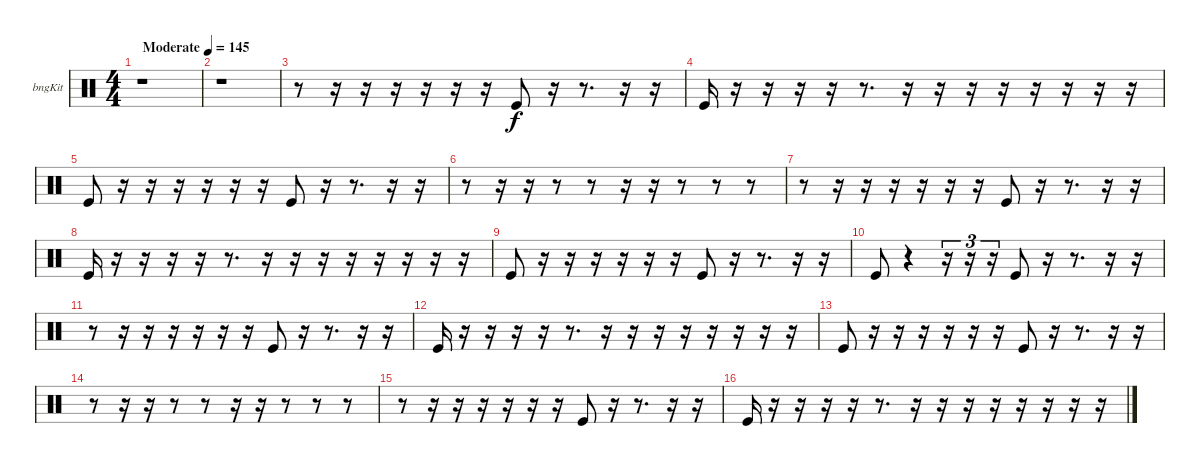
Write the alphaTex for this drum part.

\bracketExtendMode groupsimilarinstruments
\firstSystemTrackNameOrientation horizontal
\otherSystemsTrackNameOrientation horizontal
\track ("Bongos" "bngKit") {instrument percussion}
\staff {score}
\articulation defaults
\ts (4 4)
\beaming (8 2 2 2 2)
\tempo (145 "Moderate")
\clef neutral
\ks c
r.1{dy f} |
r.1 |
r.8 r.16 r.16 r.16 r.16 r.16 r.16 "Kick (hit)".8 r.16 r.8{d} r.16 r.16 |
"Kick (hit)".16 r.16 r.16 r.16 r.16 r.8{d} r.16 r.16 r.16 r.16 r.16 r.16 r.16 r.16 |
"Kick (hit)".8 r.16 r.16 r.16 r.16 r.16 r.16 "Kick (hit)".8 r.16 r.8{d} r.16 r.16 |
r.8 r.16 r.16 r.8 r.8 r.16 r.16 r.8 r.8 r.8 |
r.8 r.16 r.16 r.16 r.16 r.16 r.16 "Kick (hit)".8 r.16 r.8{d} r.16 r.16 |
"Kick (hit)".16 r.16 r.16 r.16 r.16 r.8{d} r.16 r.16 r.16 r.16 r.16 r.16 r.16 r.16 |
"Kick (hit)".8 r.16 r.16 r.16 r.16 r.16 r.16 "Kick (hit)".8 r.16 r.8{d} r.16 r.16 |
"Kick (hit)".8 r.4 r.16{tu (3 2)} r.16{tu (3 2)} r.16{tu (3 2)} "Kick (hit)".8 r.16 r.8{d} r.16 r.16 |
r.8 r.16 r.16 r.16 r.16 r.16 r.16 "Kick (hit)".8 r.16 r.8{d} r.16 r.16 |
"Kick (hit)".16 r.16 r.16 r.16 r.16 r.8{d} r.16 r.16 r.16 r.16 r.16 r.16 r.16 r.16 |
"Kick (hit)".8 r.16 r.16 r.16 r.16 r.16 r.16 "Kick (hit)".8 r.16 r.8{d} r.16 r.16 |
r.8 r.16 r.16 r.8 r.8 r.16 r.16 r.8 r.8 r.8 |
r.8 r.16 r.16 r.16 r.16 r.16 r.16 "Kick (hit)".8 r.16 r.8{d} r.16 r.16 |
"Kick (hit)".16 r.16 r.16 r.16 r.16 r.8{d} r.16 r.16 r.16 r.16 r.16 r.16 r.16 r.16
